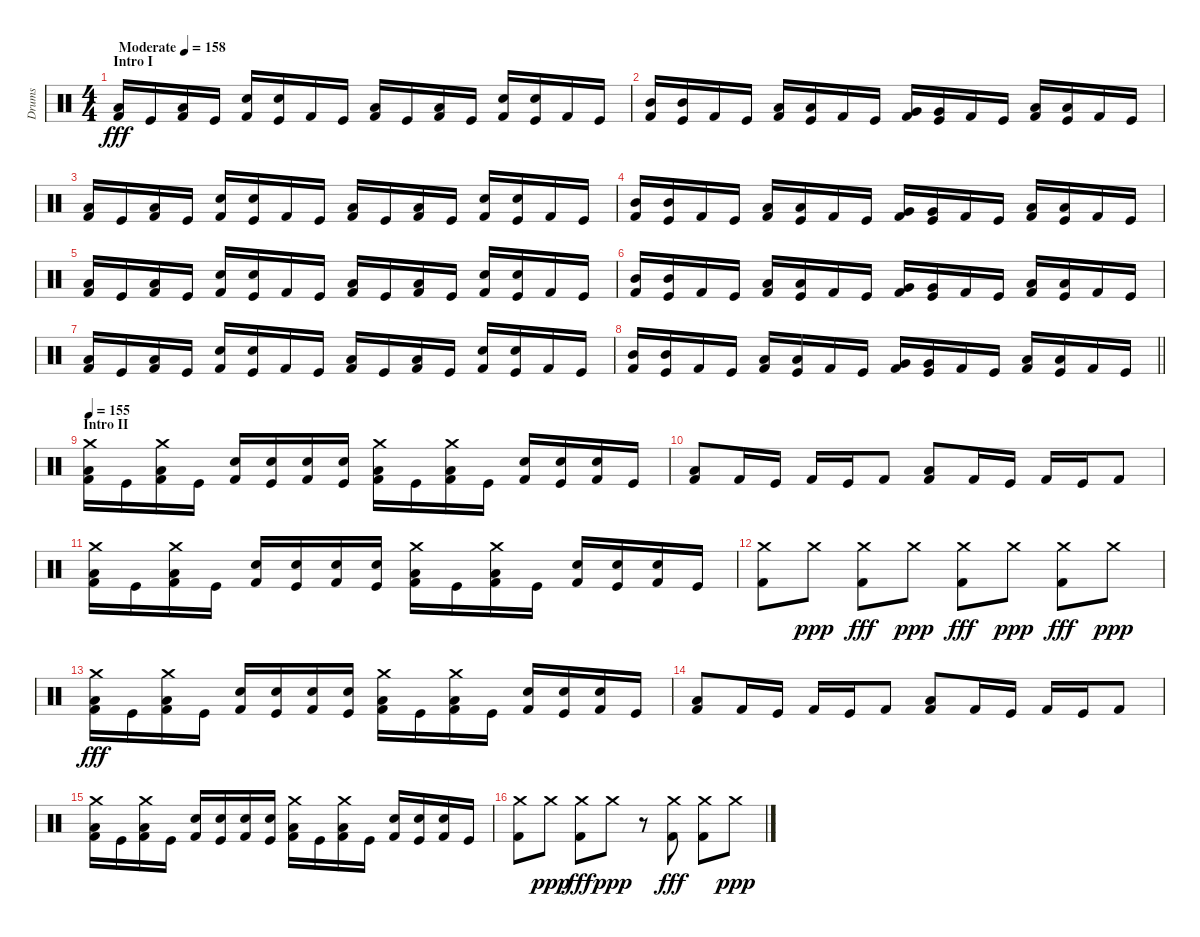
\track ("Drums" "Drums") {instrument percussion}
\staff {score}
\articulation defaults
\ts (4 4)
\section ("" "Intro I")
\tempo (158 "Moderate")
\clef neutral
\ks c
("Low Floor Tom (hit)" "Kick (hit) 2").16{dy fff} "Kick (hit)".16 ("Low Floor Tom (hit)" "Kick (hit) 2").16 "Kick (hit)".16 ("Snare (hit) 2" "Kick (hit) 2").16 ("Snare (hit) 2" "Kick (hit)").16 "Kick (hit) 2".16 "Kick (hit)".16 ("Low Floor Tom (hit)" "Kick (hit) 2").16 "Kick (hit)".16 ("Low Floor Tom (hit)" "Kick (hit) 2").16 "Kick (hit)".16 ("Snare (hit) 2" "Kick (hit) 2").16 ("Snare (hit) 2" "Kick (hit)").16 "Kick (hit) 2".16 "Kick (hit)".16 |
("Mid Tom (hit)" "Kick (hit) 2").16 ("Mid Tom (hit)" "Kick (hit)").16 "Kick (hit) 2".16 "Kick (hit)".16 ("Low Tom (hit)" "Kick (hit) 2").16 ("Low Tom (hit)" "Kick (hit)").16 "Kick (hit) 2".16 "Kick (hit)".16 ("Very Low Tom (hit)" "Kick (hit) 2").16 ("Very Low Tom (hit)" "Kick (hit)").16 "Kick (hit) 2".16 "Kick (hit)".16 ("Low Floor Tom (hit)" "Kick (hit) 2").16 ("Low Floor Tom (hit)" "Kick (hit)").16 "Kick (hit) 2".16 "Kick (hit)".16 |
("Low Floor Tom (hit)" "Kick (hit) 2").16 "Kick (hit)".16 ("Low Floor Tom (hit)" "Kick (hit) 2").16 "Kick (hit)".16 ("Snare (hit) 2" "Kick (hit) 2").16 ("Snare (hit) 2" "Kick (hit)").16 "Kick (hit) 2".16 "Kick (hit)".16 ("Low Floor Tom (hit)" "Kick (hit) 2").16 "Kick (hit)".16 ("Low Floor Tom (hit)" "Kick (hit) 2").16 "Kick (hit)".16 ("Snare (hit) 2" "Kick (hit) 2").16 ("Snare (hit) 2" "Kick (hit)").16 "Kick (hit) 2".16 "Kick (hit)".16 |
("Mid Tom (hit)" "Kick (hit) 2").16 ("Mid Tom (hit)" "Kick (hit)").16 "Kick (hit) 2".16 "Kick (hit)".16 ("Low Tom (hit)" "Kick (hit) 2").16 ("Low Tom (hit)" "Kick (hit)").16 "Kick (hit) 2".16 "Kick (hit)".16 ("Very Low Tom (hit)" "Kick (hit) 2").16 ("Very Low Tom (hit)" "Kick (hit)").16 "Kick (hit) 2".16 "Kick (hit)".16 ("Low Floor Tom (hit)" "Kick (hit) 2").16 ("Low Floor Tom (hit)" "Kick (hit)").16 "Kick (hit) 2".16 "Kick (hit)".16 |
("Low Floor Tom (hit)" "Kick (hit) 2").16 "Kick (hit)".16 ("Low Floor Tom (hit)" "Kick (hit) 2").16 "Kick (hit)".16 ("Snare (hit) 2" "Kick (hit) 2").16 ("Snare (hit) 2" "Kick (hit)").16 "Kick (hit) 2".16 "Kick (hit)".16 ("Low Floor Tom (hit)" "Kick (hit) 2").16 "Kick (hit)".16 ("Low Floor Tom (hit)" "Kick (hit) 2").16 "Kick (hit)".16 ("Snare (hit) 2" "Kick (hit) 2").16 ("Snare (hit) 2" "Kick (hit)").16 "Kick (hit) 2".16 "Kick (hit)".16 |
("Mid Tom (hit)" "Kick (hit) 2").16 ("Mid Tom (hit)" "Kick (hit)").16 "Kick (hit) 2".16 "Kick (hit)".16 ("Low Tom (hit)" "Kick (hit) 2").16 ("Low Tom (hit)" "Kick (hit)").16 "Kick (hit) 2".16 "Kick (hit)".16 ("Very Low Tom (hit)" "Kick (hit) 2").16 ("Very Low Tom (hit)" "Kick (hit)").16 "Kick (hit) 2".16 "Kick (hit)".16 ("Low Floor Tom (hit)" "Kick (hit) 2").16 ("Low Floor Tom (hit)" "Kick (hit)").16 "Kick (hit) 2".16 "Kick (hit)".16 |
("Low Floor Tom (hit)" "Kick (hit) 2").16 "Kick (hit)".16 ("Low Floor Tom (hit)" "Kick (hit) 2").16 "Kick (hit)".16 ("Snare (hit) 2" "Kick (hit) 2").16 ("Snare (hit) 2" "Kick (hit)").16 "Kick (hit) 2".16 "Kick (hit)".16 ("Low Floor Tom (hit)" "Kick (hit) 2").16 "Kick (hit)".16 ("Low Floor Tom (hit)" "Kick (hit) 2").16 "Kick (hit)".16 ("Snare (hit) 2" "Kick (hit) 2").16 ("Snare (hit) 2" "Kick (hit)").16 "Kick (hit) 2".16 "Kick (hit)".16 |
\barLineRight lightlight
("Mid Tom (hit)" "Kick (hit) 2").16 ("Mid Tom (hit)" "Kick (hit)").16 "Kick (hit) 2".16 "Kick (hit)".16 ("Low Tom (hit)" "Kick (hit) 2").16 ("Low Tom (hit)" "Kick (hit)").16 "Kick (hit) 2".16 "Kick (hit)".16 ("Very Low Tom (hit)" "Kick (hit) 2").16 ("Very Low Tom (hit)" "Kick (hit)").16 "Kick (hit) 2".16 "Kick (hit)".16 ("Low Floor Tom (hit)" "Kick (hit) 2").16 ("Low Floor Tom (hit)" "Kick (hit)").16 "Kick (hit) 2".16 "Kick (hit)".16 |
\section ("" "Intro II")
\tempo 155
("Crash medium (hit)" "Low Floor Tom (hit)" "Kick (hit) 2").16 "Kick (hit)".16 ("Crash medium (hit)" "Low Floor Tom (hit)" "Kick (hit) 2").16 "Kick (hit)".16 ("Snare (hit) 2" "Kick (hit) 2").16 ("Snare (hit) 2" "Kick (hit)").16 ("Snare (hit) 2" "Kick (hit) 2").16 ("Snare (hit) 2" "Kick (hit)").16 ("Crash medium (hit)" "Low Floor Tom (hit)" "Kick (hit) 2").16 "Kick (hit)".16 ("Crash medium (hit)" "Low Floor Tom (hit)" "Kick (hit) 2").16 "Kick (hit)".16 ("Snare (hit) 2" "Kick (hit) 2").16 ("Snare (hit) 2" "Kick (hit)").16 ("Snare (hit) 2" "Kick (hit) 2").16 "Kick (hit)".16 |
("Low Floor Tom (hit)" "Kick (hit) 2").8 "Kick (hit) 2".16 "Kick (hit)".16 "Kick (hit) 2".16 "Kick (hit)".16 "Kick (hit) 2".8 ("Low Floor Tom (hit)" "Kick (hit) 2").8 "Kick (hit) 2".16 "Kick (hit)".16 "Kick (hit) 2".16 "Kick (hit)".16 "Kick (hit) 2".8 |
("Crash medium (hit)" "Low Floor Tom (hit)" "Kick (hit) 2").16 "Kick (hit)".16 ("Crash medium (hit)" "Low Floor Tom (hit)" "Kick (hit) 2").16 "Kick (hit)".16 ("Snare (hit) 2" "Kick (hit) 2").16 ("Snare (hit) 2" "Kick (hit)").16 ("Snare (hit) 2" "Kick (hit) 2").16 ("Snare (hit) 2" "Kick (hit)").16 ("Crash medium (hit)" "Low Floor Tom (hit)" "Kick (hit) 2").16 "Kick (hit)".16 ("Crash medium (hit)" "Low Floor Tom (hit)" "Kick (hit) 2").16 "Kick (hit)".16 ("Snare (hit) 2" "Kick (hit) 2").16 ("Snare (hit) 2" "Kick (hit)").16 ("Snare (hit) 2" "Kick (hit) 2").16 "Kick (hit)".16 |
("Crash medium (hit)" "Kick (hit) 2").8 "Crash medium (hit)".8{dy ppp} ("Crash medium (hit)" "Kick (hit) 2").8{dy fff} "Crash medium (hit)".8{dy ppp} ("Crash medium (hit)" "Kick (hit) 2").8{dy fff} "Crash medium (hit)".8{dy ppp} ("Crash medium (hit)" "Kick (hit) 2").8{dy fff} "Crash medium (hit)".8{dy ppp} |
("Crash medium (hit)" "Low Floor Tom (hit)" "Kick (hit) 2").16{dy fff} "Kick (hit)".16 ("Crash medium (hit)" "Low Floor Tom (hit)" "Kick (hit) 2").16 "Kick (hit)".16 ("Snare (hit) 2" "Kick (hit) 2").16 ("Snare (hit) 2" "Kick (hit)").16 ("Snare (hit) 2" "Kick (hit) 2").16 ("Snare (hit) 2" "Kick (hit)").16 ("Crash medium (hit)" "Low Floor Tom (hit)" "Kick (hit) 2").16 "Kick (hit)".16 ("Crash medium (hit)" "Low Floor Tom (hit)" "Kick (hit) 2").16 "Kick (hit)".16 ("Snare (hit) 2" "Kick (hit) 2").16 ("Snare (hit) 2" "Kick (hit)").16 ("Snare (hit) 2" "Kick (hit) 2").16 "Kick (hit)".16 |
("Low Floor Tom (hit)" "Kick (hit) 2").8 "Kick (hit) 2".16 "Kick (hit)".16 "Kick (hit) 2".16 "Kick (hit)".16 "Kick (hit) 2".8 ("Low Floor Tom (hit)" "Kick (hit) 2").8 "Kick (hit) 2".16 "Kick (hit)".16 "Kick (hit) 2".16 "Kick (hit)".16 "Kick (hit) 2".8 |
("Crash medium (hit)" "Low Floor Tom (hit)" "Kick (hit) 2").16 "Kick (hit)".16 ("Crash medium (hit)" "Low Floor Tom (hit)" "Kick (hit) 2").16 "Kick (hit)".16 ("Snare (hit) 2" "Kick (hit) 2").16 ("Snare (hit) 2" "Kick (hit)").16 ("Snare (hit) 2" "Kick (hit) 2").16 ("Snare (hit) 2" "Kick (hit)").16 ("Crash medium (hit)" "Low Floor Tom (hit)" "Kick (hit) 2").16 "Kick (hit)".16 ("Crash medium (hit)" "Low Floor Tom (hit)" "Kick (hit) 2").16 "Kick (hit)".16 ("Snare (hit) 2" "Kick (hit) 2").16 ("Snare (hit) 2" "Kick (hit)").16 ("Snare (hit) 2" "Kick (hit) 2").16 "Kick (hit)".16 |
("Crash medium (hit)" "Kick (hit) 2").8 "Crash medium (hit)".8{dy ppp} ("Crash medium (hit)" "Kick (hit) 2").8{dy fff} "Crash medium (hit)".8{dy ppp} r.8 ("Crash medium (hit)" "Kick (hit) 2").8{dy fff} ("Crash medium (hit)" "Kick (hit) 2").8 "Crash medium (hit)".8{dy ppp}
